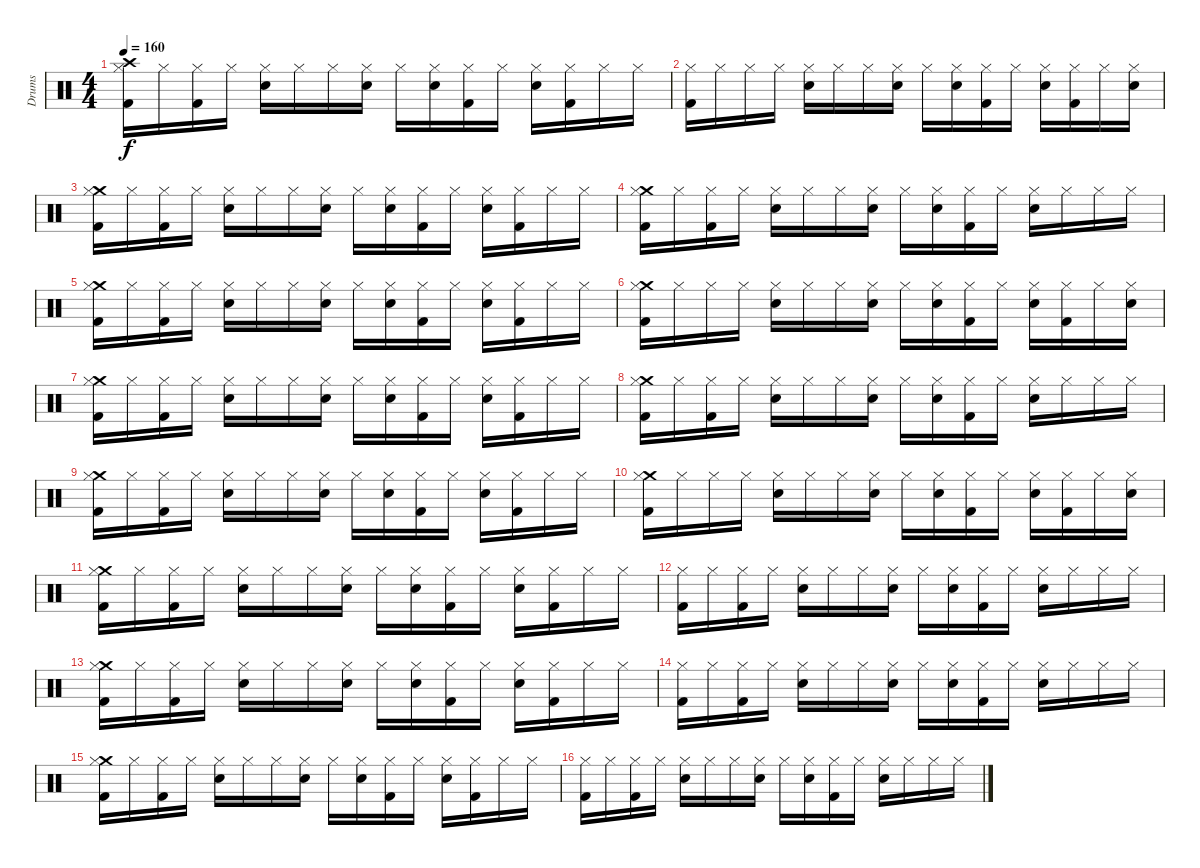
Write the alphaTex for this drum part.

\track ("Drums" "Drums") {instrument percussion}
\staff {score}
\articulation defaults
\ts (4 4)
\tempo 160
\clef neutral
\ks c
("Crash high (hit)" "Kick (hit) 2" "Hi-Hat (closed)").16{dy f} "Hi-Hat (closed)".16 ("Kick (hit) 2" "Hi-Hat (closed)").16 "Hi-Hat (closed)".16 ("Hi-Hat (closed)" "Electric Snare (hit)").16 "Hi-Hat (closed)".16 "Hi-Hat (closed)".16 ("Electric Snare (hit)" "Hi-Hat (closed)").16 "Hi-Hat (closed)".16 ("Electric Snare (hit)" "Hi-Hat (closed)").16 ("Kick (hit) 2" "Hi-Hat (closed)").16 "Hi-Hat (closed)".16 ("Electric Snare (hit)" "Hi-Hat (closed)").16 ("Kick (hit) 2" "Hi-Hat (closed)").16 "Hi-Hat (closed)".16 "Hi-Hat (closed)".16 |
("Kick (hit) 2" "Hi-Hat (closed)").16 "Hi-Hat (closed)".16 "Hi-Hat (closed)".16 "Hi-Hat (closed)".16 ("Hi-Hat (closed)" "Electric Snare (hit)").16 "Hi-Hat (closed)".16 "Hi-Hat (closed)".16 ("Electric Snare (hit)" "Hi-Hat (closed)").16 "Hi-Hat (closed)".16 ("Electric Snare (hit)" "Hi-Hat (closed)").16 ("Kick (hit) 2" "Hi-Hat (closed)").16 "Hi-Hat (closed)".16 ("Electric Snare (hit)" "Hi-Hat (closed)").16 ("Kick (hit) 2" "Hi-Hat (closed)").16 "Hi-Hat (closed)".16 ("Electric Snare (hit)" "Hi-Hat (closed)").16 |
("Crash medium (hit)" "Kick (hit) 2" "Hi-Hat (closed)").16 "Hi-Hat (closed)".16 ("Kick (hit) 2" "Hi-Hat (closed)").16 "Hi-Hat (closed)".16 ("Hi-Hat (closed)" "Electric Snare (hit)").16 "Hi-Hat (closed)".16 "Hi-Hat (closed)".16 ("Electric Snare (hit)" "Hi-Hat (closed)").16 "Hi-Hat (closed)".16 ("Electric Snare (hit)" "Hi-Hat (closed)").16 ("Kick (hit) 2" "Hi-Hat (closed)").16 "Hi-Hat (closed)".16 ("Electric Snare (hit)" "Hi-Hat (closed)").16 ("Kick (hit) 2" "Hi-Hat (closed)").16 "Hi-Hat (closed)".16 "Hi-Hat (closed)".16 |
("Crash medium (hit)" "Kick (hit) 2" "Hi-Hat (closed)").16 "Hi-Hat (closed)".16 ("Kick (hit) 2" "Hi-Hat (closed)").16 "Hi-Hat (closed)".16 ("Hi-Hat (closed)" "Electric Snare (hit)").16 "Hi-Hat (closed)".16 "Hi-Hat (closed)".16 ("Electric Snare (hit)" "Hi-Hat (closed)").16 "Hi-Hat (closed)".16 ("Electric Snare (hit)" "Hi-Hat (closed)").16 ("Kick (hit) 2" "Hi-Hat (closed)").16 "Hi-Hat (closed)".16 ("Electric Snare (hit)" "Hi-Hat (closed)").16 "Hi-Hat (closed)".16 "Hi-Hat (closed)".16 "Hi-Hat (closed)".16 |
("Crash medium (hit)" "Kick (hit) 2" "Hi-Hat (closed)").16 "Hi-Hat (closed)".16 ("Kick (hit) 2" "Hi-Hat (closed)").16 "Hi-Hat (closed)".16 ("Hi-Hat (closed)" "Electric Snare (hit)").16 "Hi-Hat (closed)".16 "Hi-Hat (closed)".16 ("Electric Snare (hit)" "Hi-Hat (closed)").16 "Hi-Hat (closed)".16 ("Electric Snare (hit)" "Hi-Hat (closed)").16 ("Kick (hit) 2" "Hi-Hat (closed)").16 "Hi-Hat (closed)".16 ("Electric Snare (hit)" "Hi-Hat (closed)").16 ("Kick (hit) 2" "Hi-Hat (closed)").16 "Hi-Hat (closed)".16 "Hi-Hat (closed)".16 |
("Crash medium (hit)" "Kick (hit) 2" "Hi-Hat (closed)").16 "Hi-Hat (closed)".16 "Hi-Hat (closed)".16 "Hi-Hat (closed)".16 ("Hi-Hat (closed)" "Electric Snare (hit)").16 "Hi-Hat (closed)".16 "Hi-Hat (closed)".16 ("Electric Snare (hit)" "Hi-Hat (closed)").16 "Hi-Hat (closed)".16 ("Electric Snare (hit)" "Hi-Hat (closed)").16 ("Kick (hit) 2" "Hi-Hat (closed)").16 "Hi-Hat (closed)".16 ("Electric Snare (hit)" "Hi-Hat (closed)").16 ("Kick (hit) 2" "Hi-Hat (closed)").16 "Hi-Hat (closed)".16 ("Electric Snare (hit)" "Hi-Hat (closed)").16 |
("Crash medium (hit)" "Kick (hit) 2" "Hi-Hat (closed)").16 "Hi-Hat (closed)".16 ("Kick (hit) 2" "Hi-Hat (closed)").16 "Hi-Hat (closed)".16 ("Hi-Hat (closed)" "Electric Snare (hit)").16 "Hi-Hat (closed)".16 "Hi-Hat (closed)".16 ("Electric Snare (hit)" "Hi-Hat (closed)").16 "Hi-Hat (closed)".16 ("Electric Snare (hit)" "Hi-Hat (closed)").16 ("Kick (hit) 2" "Hi-Hat (closed)").16 "Hi-Hat (closed)".16 ("Electric Snare (hit)" "Hi-Hat (closed)").16 ("Kick (hit) 2" "Hi-Hat (closed)").16 "Hi-Hat (closed)".16 "Hi-Hat (closed)".16 |
("Crash medium (hit)" "Kick (hit) 2" "Hi-Hat (closed)").16 "Hi-Hat (closed)".16 ("Kick (hit) 2" "Hi-Hat (closed)").16 "Hi-Hat (closed)".16 ("Hi-Hat (closed)" "Electric Snare (hit)").16 "Hi-Hat (closed)".16 "Hi-Hat (closed)".16 ("Electric Snare (hit)" "Hi-Hat (closed)").16 "Hi-Hat (closed)".16 ("Electric Snare (hit)" "Hi-Hat (closed)").16 ("Kick (hit) 2" "Hi-Hat (closed)").16 "Hi-Hat (closed)".16 ("Electric Snare (hit)" "Hi-Hat (closed)").16 "Hi-Hat (closed)".16 "Hi-Hat (closed)".16 "Hi-Hat (closed)".16 |
("Crash medium (hit)" "Kick (hit) 2" "Hi-Hat (closed)").16 "Hi-Hat (closed)".16 ("Kick (hit) 2" "Hi-Hat (closed)").16 "Hi-Hat (closed)".16 ("Hi-Hat (closed)" "Electric Snare (hit)").16 "Hi-Hat (closed)".16 "Hi-Hat (closed)".16 ("Electric Snare (hit)" "Hi-Hat (closed)").16 "Hi-Hat (closed)".16 ("Electric Snare (hit)" "Hi-Hat (closed)").16 ("Kick (hit) 2" "Hi-Hat (closed)").16 "Hi-Hat (closed)".16 ("Electric Snare (hit)" "Hi-Hat (closed)").16 ("Kick (hit) 2" "Hi-Hat (closed)").16 "Hi-Hat (closed)".16 "Hi-Hat (closed)".16 |
("Crash medium (hit)" "Kick (hit) 2" "Hi-Hat (closed)").16 "Hi-Hat (closed)".16 "Hi-Hat (closed)".16 "Hi-Hat (closed)".16 ("Hi-Hat (closed)" "Electric Snare (hit)").16 "Hi-Hat (closed)".16 "Hi-Hat (closed)".16 ("Electric Snare (hit)" "Hi-Hat (closed)").16 "Hi-Hat (closed)".16 ("Electric Snare (hit)" "Hi-Hat (closed)").16 ("Kick (hit) 2" "Hi-Hat (closed)").16 "Hi-Hat (closed)".16 ("Electric Snare (hit)" "Hi-Hat (closed)").16 ("Kick (hit) 2" "Hi-Hat (closed)").16 "Hi-Hat (closed)".16 ("Electric Snare (hit)" "Hi-Hat (closed)").16 |
("Crash medium (hit)" "Kick (hit) 2" "Hi-Hat (closed)").16 "Hi-Hat (closed)".16 ("Kick (hit) 2" "Hi-Hat (closed)").16 "Hi-Hat (closed)".16 ("Hi-Hat (closed)" "Electric Snare (hit)").16 "Hi-Hat (closed)".16 "Hi-Hat (closed)".16 ("Electric Snare (hit)" "Hi-Hat (closed)").16 "Hi-Hat (closed)".16 ("Electric Snare (hit)" "Hi-Hat (closed)").16 ("Kick (hit) 2" "Hi-Hat (closed)").16 "Hi-Hat (closed)".16 ("Electric Snare (hit)" "Hi-Hat (closed)").16 ("Kick (hit) 2" "Hi-Hat (closed)").16 "Hi-Hat (closed)".16 "Hi-Hat (closed)".16 |
("Kick (hit) 2" "Hi-Hat (closed)").16 "Hi-Hat (closed)".16 ("Kick (hit) 2" "Hi-Hat (closed)").16 "Hi-Hat (closed)".16 ("Hi-Hat (closed)" "Electric Snare (hit)").16 "Hi-Hat (closed)".16 "Hi-Hat (closed)".16 ("Electric Snare (hit)" "Hi-Hat (closed)").16 "Hi-Hat (closed)".16 ("Electric Snare (hit)" "Hi-Hat (closed)").16 ("Kick (hit) 2" "Hi-Hat (closed)").16 "Hi-Hat (closed)".16 ("Electric Snare (hit)" "Hi-Hat (closed)").16 "Hi-Hat (closed)".16 "Hi-Hat (closed)".16 "Hi-Hat (closed)".16 |
("Crash medium (hit)" "Kick (hit) 2" "Hi-Hat (closed)").16 "Hi-Hat (closed)".16 ("Kick (hit) 2" "Hi-Hat (closed)").16 "Hi-Hat (closed)".16 ("Hi-Hat (closed)" "Electric Snare (hit)").16 "Hi-Hat (closed)".16 "Hi-Hat (closed)".16 ("Electric Snare (hit)" "Hi-Hat (closed)").16 "Hi-Hat (closed)".16 ("Electric Snare (hit)" "Hi-Hat (closed)").16 ("Kick (hit) 2" "Hi-Hat (closed)").16 "Hi-Hat (closed)".16 ("Electric Snare (hit)" "Hi-Hat (closed)").16 ("Kick (hit) 2" "Hi-Hat (closed)").16 "Hi-Hat (closed)".16 "Hi-Hat (closed)".16 |
("Kick (hit) 2" "Hi-Hat (closed)").16 "Hi-Hat (closed)".16 ("Kick (hit) 2" "Hi-Hat (closed)").16 "Hi-Hat (closed)".16 ("Hi-Hat (closed)" "Electric Snare (hit)").16 "Hi-Hat (closed)".16 "Hi-Hat (closed)".16 ("Electric Snare (hit)" "Hi-Hat (closed)").16 "Hi-Hat (closed)".16 ("Electric Snare (hit)" "Hi-Hat (closed)").16 ("Kick (hit) 2" "Hi-Hat (closed)").16 "Hi-Hat (closed)".16 ("Electric Snare (hit)" "Hi-Hat (closed)").16 "Hi-Hat (closed)".16 "Hi-Hat (closed)".16 "Hi-Hat (closed)".16 |
("Crash medium (hit)" "Kick (hit) 2" "Hi-Hat (closed)").16 "Hi-Hat (closed)".16 ("Kick (hit) 2" "Hi-Hat (closed)").16 "Hi-Hat (closed)".16 ("Hi-Hat (closed)" "Electric Snare (hit)").16 "Hi-Hat (closed)".16 "Hi-Hat (closed)".16 ("Electric Snare (hit)" "Hi-Hat (closed)").16 "Hi-Hat (closed)".16 ("Electric Snare (hit)" "Hi-Hat (closed)").16 ("Kick (hit) 2" "Hi-Hat (closed)").16 "Hi-Hat (closed)".16 ("Electric Snare (hit)" "Hi-Hat (closed)").16 ("Kick (hit) 2" "Hi-Hat (closed)").16 "Hi-Hat (closed)".16 "Hi-Hat (closed)".16 |
("Kick (hit) 2" "Hi-Hat (closed)").16 "Hi-Hat (closed)".16 ("Kick (hit) 2" "Hi-Hat (closed)").16 "Hi-Hat (closed)".16 ("Hi-Hat (closed)" "Electric Snare (hit)").16 "Hi-Hat (closed)".16 "Hi-Hat (closed)".16 ("Electric Snare (hit)" "Hi-Hat (closed)").16 "Hi-Hat (closed)".16 ("Electric Snare (hit)" "Hi-Hat (closed)").16 ("Kick (hit) 2" "Hi-Hat (closed)").16 "Hi-Hat (closed)".16 ("Electric Snare (hit)" "Hi-Hat (closed)").16 "Hi-Hat (closed)".16 "Hi-Hat (closed)".16 "Hi-Hat (closed)".16
